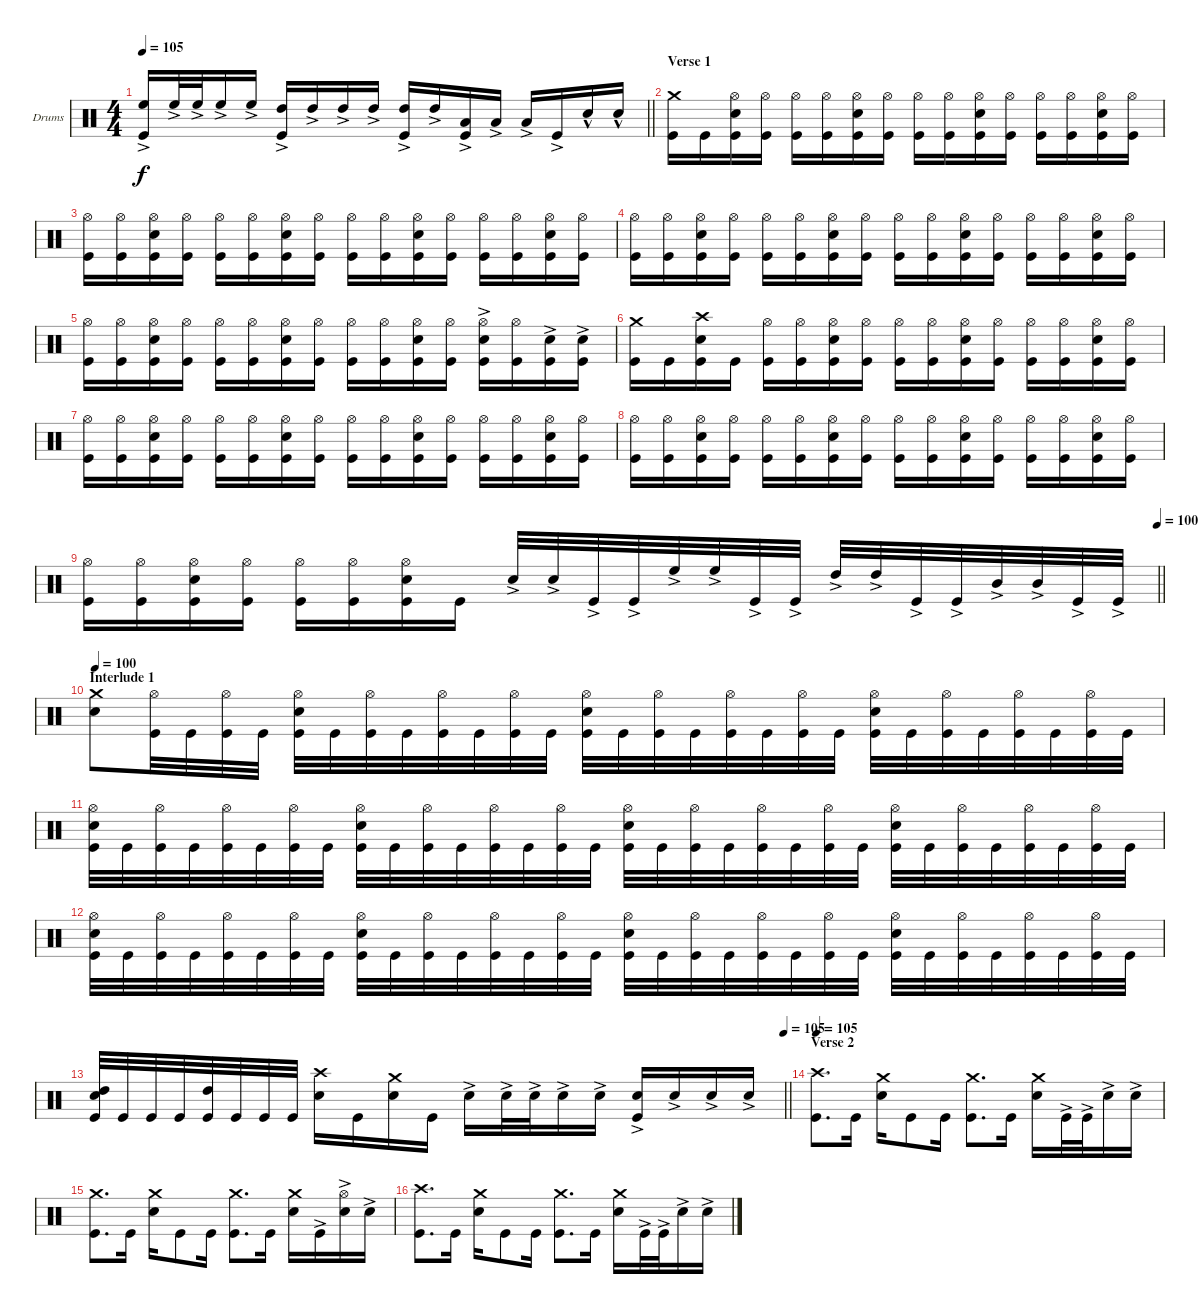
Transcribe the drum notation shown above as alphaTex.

\bracketExtendMode groupsimilarinstruments
\firstSystemTrackNameOrientation horizontal
\otherSystemsTrackNameOrientation horizontal
\track ("Drumkit" "Drums") {instrument percussion}
\staff {score}
\articulation defaults
\ts (4 4)
\tempo 105
\clef neutral
\barLineRight lightlight
\ks c
("High Floor Tom (hit)"{ac} "Kick (hit)"{ac}).16{dy f} "High Floor Tom (hit)"{ac}.32 "High Floor Tom (hit)"{ac}.32 "High Floor Tom (hit)"{ac}.16 "High Floor Tom (hit)"{ac}.16 ("High Tom (hit)"{ac} "Kick (hit)"{ac}).16 "High Tom (hit)"{ac}.16 "High Tom (hit)"{ac}.16 "High Tom (hit)"{ac}.16 ("High Tom (hit)"{ac} "Kick (hit)"{ac}).16 "High Tom (hit)"{ac}.16 ("Low Tom (hit)"{ac} "Kick (hit)"{ac}).16 "Low Tom (hit)"{ac}.16 "Low Tom (hit)"{ac}.16 "Kick (hit)"{ac}.16 "Snare (hit) 2"{hac}.16 "Snare (hit) 2"{hac}.16 |
\section ("" "Verse 1")
("Crash medium (hit)" "Kick (hit)").16 "Kick (hit)".16 ("Hi-Hat (open)" "Snare (hit) 2" "Kick (hit)").16 ("Hi-Hat (open)" "Kick (hit)").16 ("Hi-Hat (open)" "Kick (hit)").16 ("Hi-Hat (open)" "Kick (hit)").16 ("Hi-Hat (open)" "Snare (hit) 2" "Kick (hit)").16 ("Hi-Hat (open)" "Kick (hit)").16 ("Hi-Hat (open)" "Kick (hit)").16 ("Hi-Hat (open)" "Kick (hit)").16 ("Hi-Hat (open)" "Snare (hit) 2" "Kick (hit)").16 ("Hi-Hat (open)" "Kick (hit)").16 ("Hi-Hat (open)" "Kick (hit)").16 ("Hi-Hat (open)" "Kick (hit)").16 ("Hi-Hat (open)" "Snare (hit) 2" "Kick (hit)").16 ("Hi-Hat (open)" "Kick (hit)").16 |
("Hi-Hat (open)" "Kick (hit)").16 ("Hi-Hat (open)" "Kick (hit)").16 ("Hi-Hat (open)" "Snare (hit) 2" "Kick (hit)").16 ("Hi-Hat (open)" "Kick (hit)").16 ("Hi-Hat (open)" "Kick (hit)").16 ("Hi-Hat (open)" "Kick (hit)").16 ("Hi-Hat (open)" "Snare (hit) 2" "Kick (hit)").16 ("Hi-Hat (open)" "Kick (hit)").16 ("Hi-Hat (open)" "Kick (hit)").16 ("Hi-Hat (open)" "Kick (hit)").16 ("Hi-Hat (open)" "Snare (hit) 2" "Kick (hit)").16 ("Hi-Hat (open)" "Kick (hit)").16 ("Hi-Hat (open)" "Kick (hit)").16 ("Hi-Hat (open)" "Kick (hit)").16 ("Hi-Hat (open)" "Snare (hit) 2" "Kick (hit)").16 ("Hi-Hat (open)" "Kick (hit)").16 |
("Hi-Hat (open)" "Kick (hit)").16 ("Hi-Hat (open)" "Kick (hit)").16 ("Hi-Hat (open)" "Snare (hit) 2" "Kick (hit)").16 ("Hi-Hat (open)" "Kick (hit)").16 ("Hi-Hat (open)" "Kick (hit)").16 ("Hi-Hat (open)" "Kick (hit)").16 ("Hi-Hat (open)" "Snare (hit) 2" "Kick (hit)").16 ("Hi-Hat (open)" "Kick (hit)").16 ("Hi-Hat (open)" "Kick (hit)").16 ("Hi-Hat (open)" "Kick (hit)").16 ("Hi-Hat (open)" "Snare (hit) 2" "Kick (hit)").16 ("Hi-Hat (open)" "Kick (hit)").16 ("Hi-Hat (open)" "Kick (hit)").16 ("Hi-Hat (open)" "Kick (hit)").16 ("Hi-Hat (open)" "Snare (hit) 2" "Kick (hit)").16 ("Hi-Hat (open)" "Kick (hit)").16 |
("Hi-Hat (open)" "Kick (hit)").16 ("Hi-Hat (open)" "Kick (hit)").16 ("Hi-Hat (open)" "Snare (hit) 2" "Kick (hit)").16 ("Hi-Hat (open)" "Kick (hit)").16 ("Hi-Hat (open)" "Kick (hit)").16 ("Hi-Hat (open)" "Kick (hit)").16 ("Hi-Hat (open)" "Snare (hit) 2" "Kick (hit)").16 ("Hi-Hat (open)" "Kick (hit)").16 ("Hi-Hat (open)" "Kick (hit)").16 ("Hi-Hat (open)" "Kick (hit)").16 ("Hi-Hat (open)" "Snare (hit) 2" "Kick (hit)").16 ("Hi-Hat (open)" "Kick (hit)").16 ("Hi-Hat (open)" "Snare (hit) 2"{ac} "Kick (hit)").16 ("Hi-Hat (open)" "Kick (hit)").16 ("Snare (hit) 2"{ac} "Kick (hit)").16 ("Snare (hit) 2"{ac} "Kick (hit)").16 |
("Crash medium (hit)" "Kick (hit)").16 "Kick (hit)".16 ("Crash high (hit)" "Snare (hit) 2" "Kick (hit)").16 "Kick (hit)".16 ("Hi-Hat (open)" "Kick (hit)").16 ("Hi-Hat (open)" "Kick (hit)").16 ("Hi-Hat (open)" "Snare (hit) 2" "Kick (hit)").16 ("Hi-Hat (open)" "Kick (hit)").16 ("Hi-Hat (open)" "Kick (hit)").16 ("Hi-Hat (open)" "Kick (hit)").16 ("Hi-Hat (open)" "Snare (hit) 2" "Kick (hit)").16 ("Hi-Hat (open)" "Kick (hit)").16 ("Hi-Hat (open)" "Kick (hit)").16 ("Hi-Hat (open)" "Kick (hit)").16 ("Hi-Hat (open)" "Snare (hit) 2" "Kick (hit)").16 ("Hi-Hat (open)" "Kick (hit)").16 |
("Hi-Hat (open)" "Kick (hit)").16 ("Hi-Hat (open)" "Kick (hit)").16 ("Hi-Hat (open)" "Snare (hit) 2" "Kick (hit)").16 ("Hi-Hat (open)" "Kick (hit)").16 ("Hi-Hat (open)" "Kick (hit)").16 ("Hi-Hat (open)" "Kick (hit)").16 ("Hi-Hat (open)" "Snare (hit) 2" "Kick (hit)").16 ("Hi-Hat (open)" "Kick (hit)").16 ("Hi-Hat (open)" "Kick (hit)").16 ("Hi-Hat (open)" "Kick (hit)").16 ("Hi-Hat (open)" "Snare (hit) 2" "Kick (hit)").16 ("Hi-Hat (open)" "Kick (hit)").16 ("Hi-Hat (open)" "Kick (hit)").16 ("Hi-Hat (open)" "Kick (hit)").16 ("Hi-Hat (open)" "Snare (hit) 2" "Kick (hit)").16 ("Hi-Hat (open)" "Kick (hit)").16 |
("Hi-Hat (open)" "Kick (hit)").16 ("Hi-Hat (open)" "Kick (hit)").16 ("Hi-Hat (open)" "Snare (hit) 2" "Kick (hit)").16 ("Hi-Hat (open)" "Kick (hit)").16 ("Hi-Hat (open)" "Kick (hit)").16 ("Hi-Hat (open)" "Kick (hit)").16 ("Hi-Hat (open)" "Snare (hit) 2" "Kick (hit)").16 ("Hi-Hat (open)" "Kick (hit)").16 ("Hi-Hat (open)" "Kick (hit)").16 ("Hi-Hat (open)" "Kick (hit)").16 ("Hi-Hat (open)" "Snare (hit) 2" "Kick (hit)").16 ("Hi-Hat (open)" "Kick (hit)").16 ("Hi-Hat (open)" "Kick (hit)").16 ("Hi-Hat (open)" "Kick (hit)").16 ("Hi-Hat (open)" "Snare (hit) 2" "Kick (hit)").16 ("Hi-Hat (open)" "Kick (hit)").16 |
\tempo (100 1)
\barLineRight lightlight
("Hi-Hat (open)" "Kick (hit)").16 ("Hi-Hat (open)" "Kick (hit)").16 ("Hi-Hat (open)" "Snare (hit) 2" "Kick (hit)").16 ("Hi-Hat (open)" "Kick (hit)").16 ("Hi-Hat (open)" "Kick (hit)").16 ("Hi-Hat (open)" "Kick (hit)").16 ("Hi-Hat (open)" "Snare (hit) 2" "Kick (hit)").16 "Kick (hit)".16 "Snare (hit) 2"{ac}.32 "Snare (hit) 2"{ac}.32 "Kick (hit)"{ac}.32 "Kick (hit)"{ac}.32 "High Floor Tom (hit)"{ac}.32 "High Floor Tom (hit)"{ac}.32 "Kick (hit)"{ac}.32 "Kick (hit)"{ac}.32 "High Tom (hit)"{ac}.32 "High Tom (hit)"{ac}.32 "Kick (hit)"{ac}.32 "Kick (hit)"{ac}.32 "Mid Tom (hit)"{ac}.32 "Mid Tom (hit)"{ac}.32 "Kick (hit)"{ac}.32 "Kick (hit)"{ac}.32 |
\section ("" "Interlude 1")
\tempo 100
("Crash medium (hit)" "Snare (hit) 2").8 ("Hi-Hat (open)" "Kick (hit)").32 "Kick (hit)".32 ("Hi-Hat (open)" "Kick (hit)").32 "Kick (hit)".32 ("Hi-Hat (open)" "Snare (hit) 2" "Kick (hit)").32 "Kick (hit)".32 ("Hi-Hat (open)" "Kick (hit)").32 "Kick (hit)".32 ("Hi-Hat (open)" "Kick (hit)").32 "Kick (hit)".32 ("Hi-Hat (open)" "Kick (hit)").32 "Kick (hit)".32 ("Hi-Hat (open)" "Snare (hit) 2" "Kick (hit)").32 "Kick (hit)".32 ("Hi-Hat (open)" "Kick (hit)").32 "Kick (hit)".32 ("Hi-Hat (open)" "Kick (hit)").32 "Kick (hit)".32 ("Hi-Hat (open)" "Kick (hit)").32 "Kick (hit)".32 ("Hi-Hat (open)" "Snare (hit) 2" "Kick (hit)").32 "Kick (hit)".32 ("Hi-Hat (open)" "Kick (hit)").32 "Kick (hit)".32 ("Hi-Hat (open)" "Kick (hit)").32 "Kick (hit)".32 ("Hi-Hat (open)" "Kick (hit)").32 "Kick (hit)".32 |
("Hi-Hat (open)" "Snare (hit) 2" "Kick (hit)").32 "Kick (hit)".32 ("Hi-Hat (open)" "Kick (hit)").32 "Kick (hit)".32 ("Hi-Hat (open)" "Kick (hit)").32 "Kick (hit)".32 ("Hi-Hat (open)" "Kick (hit)").32 "Kick (hit)".32 ("Hi-Hat (open)" "Snare (hit) 2" "Kick (hit)").32 "Kick (hit)".32 ("Hi-Hat (open)" "Kick (hit)").32 "Kick (hit)".32 ("Hi-Hat (open)" "Kick (hit)").32 "Kick (hit)".32 ("Hi-Hat (open)" "Kick (hit)").32 "Kick (hit)".32 ("Hi-Hat (open)" "Snare (hit) 2" "Kick (hit)").32 "Kick (hit)".32 ("Hi-Hat (open)" "Kick (hit)").32 "Kick (hit)".32 ("Hi-Hat (open)" "Kick (hit)").32 "Kick (hit)".32 ("Hi-Hat (open)" "Kick (hit)").32 "Kick (hit)".32 ("Hi-Hat (open)" "Snare (hit) 2" "Kick (hit)").32 "Kick (hit)".32 ("Hi-Hat (open)" "Kick (hit)").32 "Kick (hit)".32 ("Hi-Hat (open)" "Kick (hit)").32 "Kick (hit)".32 ("Hi-Hat (open)" "Kick (hit)").32 "Kick (hit)".32 |
("Hi-Hat (open)" "Snare (hit) 2" "Kick (hit)").32 "Kick (hit)".32 ("Hi-Hat (open)" "Kick (hit)").32 "Kick (hit)".32 ("Hi-Hat (open)" "Kick (hit)").32 "Kick (hit)".32 ("Hi-Hat (open)" "Kick (hit)").32 "Kick (hit)".32 ("Hi-Hat (open)" "Snare (hit) 2" "Kick (hit)").32 "Kick (hit)".32 ("Hi-Hat (open)" "Kick (hit)").32 "Kick (hit)".32 ("Hi-Hat (open)" "Kick (hit)").32 "Kick (hit)".32 ("Hi-Hat (open)" "Kick (hit)").32 "Kick (hit)".32 ("Hi-Hat (open)" "Snare (hit) 2" "Kick (hit)").32 "Kick (hit)".32 ("Hi-Hat (open)" "Kick (hit)").32 "Kick (hit)".32 ("Hi-Hat (open)" "Kick (hit)").32 "Kick (hit)".32 ("Hi-Hat (open)" "Kick (hit)").32 "Kick (hit)".32 ("Hi-Hat (open)" "Snare (hit) 2" "Kick (hit)").32 "Kick (hit)".32 ("Hi-Hat (open)" "Kick (hit)").32 "Kick (hit)".32 ("Hi-Hat (open)" "Kick (hit)").32 "Kick (hit)".32 ("Hi-Hat (open)" "Kick (hit)").32 "Kick (hit)".32 |
\tempo (105 1)
\barLineRight lightlight
("High Tom (hit)" "Snare (hit) 2" "Kick (hit)").32 "Kick (hit)".32 "Kick (hit)".32 "Kick (hit)".32 ("High Tom (hit)" "Kick (hit)").32 "Kick (hit)".32 "Kick (hit)".32 "Kick (hit)".32 ("Crash high (hit)" "Snare (hit) 2").16 "Kick (hit)".16 ("Crash medium (hit)" "Snare (hit) 2").16 "Kick (hit)".16 "Snare (hit) 2"{ac}.16 "Snare (hit) 2"{ac}.32 "Snare (hit) 2"{ac}.32 "Snare (hit) 2"{ac}.16 "Snare (hit) 2"{ac}.16 ("Snare (hit) 2"{ac} "Kick (hit)").16 "Snare (hit) 2"{ac}.16 "Snare (hit) 2"{ac}.16 "Snare (hit) 2"{ac}.16 |
\section ("" "Verse 2")
\tempo 105
("Crash high (hit)" "Kick (hit)").8{d} "Kick (hit)".16 ("Crash medium (hit)" "Snare (hit) 2").16 "Kick (hit)".8 "Kick (hit)".16 ("Crash medium (hit)" "Kick (hit)").8{d} "Kick (hit)".16 ("Crash medium (hit)" "Snare (hit) 2").16 "Kick (hit)"{ac}.32 "Kick (hit)"{ac}.32 "Snare (hit) 2"{ac}.16 "Snare (hit) 2"{ac}.16 |
("Crash medium (hit)" "Kick (hit)").8{d} "Kick (hit)".16 ("Crash medium (hit)" "Snare (hit) 2").16 "Kick (hit)".8 "Kick (hit)".16 ("Crash medium (hit)" "Kick (hit)").8{d} "Kick (hit)".16 ("Crash medium (hit)" "Snare (hit) 2").16 "Kick (hit)"{ac}.16 ("Hi-Hat (open)"{ac} "Snare (hit) 2"{ac}).16 "Snare (hit) 2"{ac}.16 |
("Crash high (hit)" "Kick (hit)").8{d} "Kick (hit)".16 ("Crash medium (hit)" "Snare (hit) 2").16 "Kick (hit)".8 "Kick (hit)".16 ("Crash medium (hit)" "Kick (hit)").8{d} "Kick (hit)".16 ("Crash medium (hit)" "Snare (hit) 2").16 "Kick (hit)"{ac}.32 "Kick (hit)"{ac}.32 "Snare (hit) 2"{ac}.16 "Snare (hit) 2"{ac}.16
